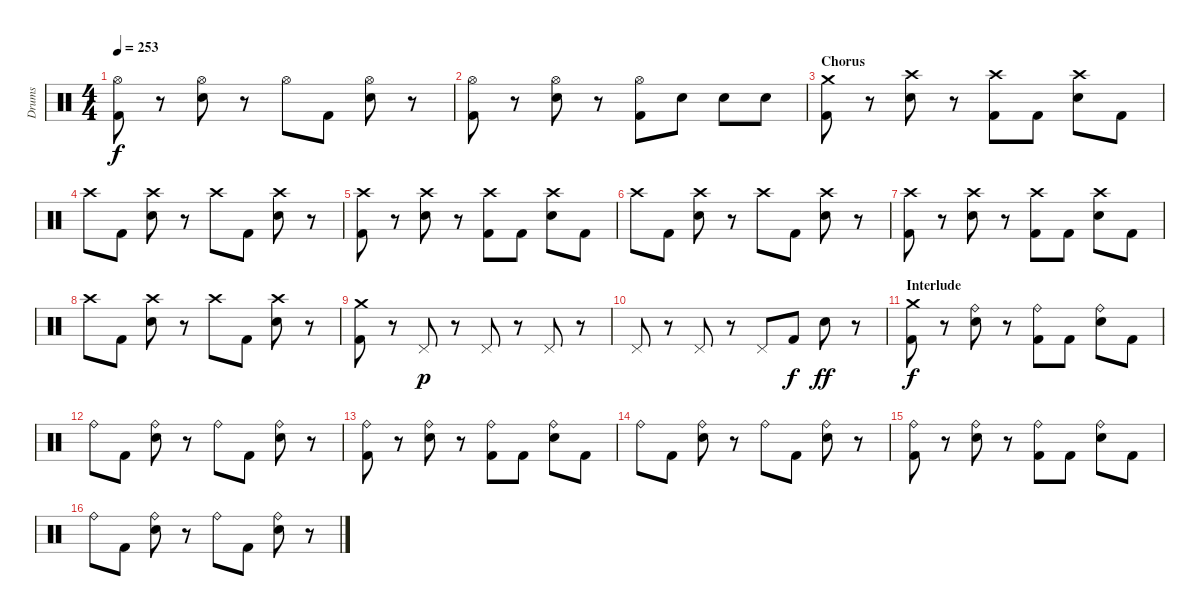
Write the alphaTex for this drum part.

\track ("Drums" "Drums") {instrument percussion}
\staff {score}
\articulation defaults
\ts (4 4)
\tempo 253
\clef neutral
\ks c
("Hi-Hat (open)" "Kick (hit) 2").8{dy f} r.8 ("Hi-Hat (open)" "Electric Snare (hit)").8 r.8 "Hi-Hat (open)".8 "Kick (hit) 2".8 ("Hi-Hat (open)" "Electric Snare (hit)").8 r.8 |
("Hi-Hat (open)" "Kick (hit) 2").8 r.8 ("Hi-Hat (open)" "Electric Snare (hit)").8 r.8 ("Hi-Hat (open)" "Kick (hit) 2").8 "Electric Snare (hit)".8 "Electric Snare (hit)".8 "Electric Snare (hit)".8 |
\section ("" "Chorus")
("Crash medium (hit)" "Kick (hit) 2").8 r.8 ("Crash high (hit)" "Electric Snare (hit)").8 r.8 ("Crash high (hit)" "Kick (hit) 2").8 "Kick (hit) 2".8 ("Crash high (hit)" "Electric Snare (hit)").8 "Kick (hit) 2".8 |
"Crash high (hit)".8 "Kick (hit) 2".8 ("Crash high (hit)" "Electric Snare (hit)").8 r.8 "Crash high (hit)".8 "Kick (hit) 2".8 ("Crash high (hit)" "Electric Snare (hit)").8 r.8 |
("Crash high (hit)" "Kick (hit) 2").8 r.8 ("Crash high (hit)" "Electric Snare (hit)").8 r.8 ("Crash high (hit)" "Kick (hit) 2").8 "Kick (hit) 2".8 ("Crash high (hit)" "Electric Snare (hit)").8 "Kick (hit) 2".8 |
"Crash high (hit)".8 "Kick (hit) 2".8 ("Crash high (hit)" "Electric Snare (hit)").8 r.8 "Crash high (hit)".8 "Kick (hit) 2".8 ("Crash high (hit)" "Electric Snare (hit)").8 r.8 |
("Crash high (hit)" "Kick (hit) 2").8 r.8 ("Crash high (hit)" "Electric Snare (hit)").8 r.8 ("Crash high (hit)" "Kick (hit) 2").8 "Kick (hit) 2".8 ("Crash high (hit)" "Electric Snare (hit)").8 "Kick (hit) 2".8 |
"Crash high (hit)".8 "Kick (hit) 2".8 ("Crash high (hit)" "Electric Snare (hit)").8 r.8 "Crash high (hit)".8 "Kick (hit) 2".8 ("Crash high (hit)" "Electric Snare (hit)").8 r.8 |
("Crash medium (hit)" "Kick (hit) 2").8 r.8 "Pedal Hi-Hat (hit)".8{dy p} r.8 "Pedal Hi-Hat (hit)".8 r.8 "Pedal Hi-Hat (hit)".8 r.8 |
"Pedal Hi-Hat (hit)".8 r.8 "Pedal Hi-Hat (hit)".8 r.8 "Pedal Hi-Hat (hit)".8 "Kick (hit) 2".8{dy f} "Electric Snare (hit)".8{dy ff} r.8 |
\section ("" "Interlude")
("Crash medium (hit)" "Kick (hit) 2").8{dy f} r.8 ("Ride (bell)" "Electric Snare (hit)").8 r.8 ("Ride (bell)" "Kick (hit) 2").8 "Kick (hit) 2".8 ("Ride (bell)" "Electric Snare (hit)").8 "Kick (hit) 2".8 |
"Ride (bell)".8 "Kick (hit) 2".8 ("Ride (bell)" "Electric Snare (hit)").8 r.8 "Ride (bell)".8 "Kick (hit) 2".8 ("Ride (bell)" "Electric Snare (hit)").8 r.8 |
("Ride (bell)" "Kick (hit) 2").8 r.8 ("Ride (bell)" "Electric Snare (hit)").8 r.8 ("Ride (bell)" "Kick (hit) 2").8 "Kick (hit) 2".8 ("Ride (bell)" "Electric Snare (hit)").8 "Kick (hit) 2".8 |
"Ride (bell)".8 "Kick (hit) 2".8 ("Ride (bell)" "Electric Snare (hit)").8 r.8 "Ride (bell)".8 "Kick (hit) 2".8 ("Ride (bell)" "Electric Snare (hit)").8 r.8 |
("Ride (bell)" "Kick (hit) 2").8 r.8 ("Ride (bell)" "Electric Snare (hit)").8 r.8 ("Ride (bell)" "Kick (hit) 2").8 "Kick (hit) 2".8 ("Ride (bell)" "Electric Snare (hit)").8 "Kick (hit) 2".8 |
"Ride (bell)".8 "Kick (hit) 2".8 ("Ride (bell)" "Electric Snare (hit)").8 r.8 "Ride (bell)".8 "Kick (hit) 2".8 ("Ride (bell)" "Electric Snare (hit)").8 r.8
